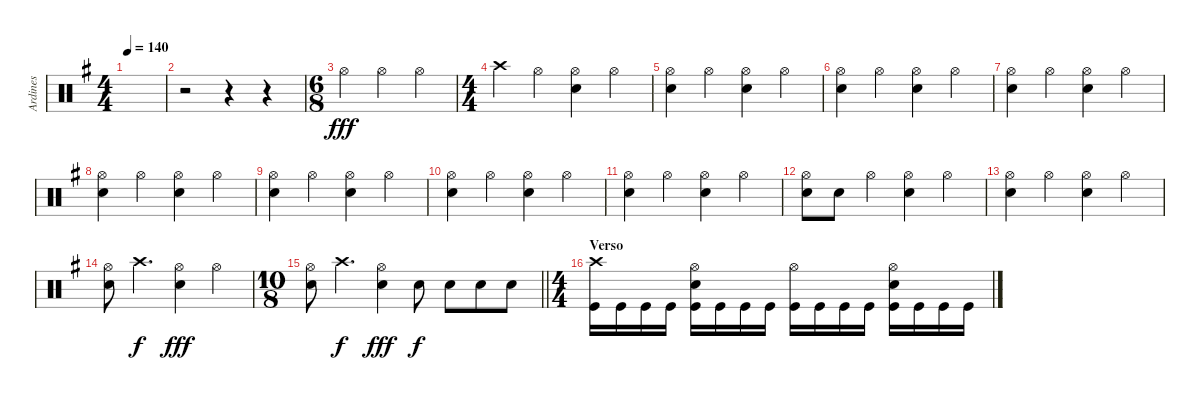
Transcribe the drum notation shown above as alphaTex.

\track ("Ardines" "Ardines") {instrument percussion}
\staff {score}
\articulation defaults
\ts (4 4)
\tempo 140
\clef neutral
\ks g
|
r.2 r.4 r.4 |
\ts (6 8)
"Hi-Hat (open)".4{dy fff} "Hi-Hat (open)".4 "Hi-Hat (open)".4 |
\ts (4 4)
"Crash high (hit)".4 "Hi-Hat (open)".4 ("Hi-Hat (open)" "Electric Snare (hit)").4 "Hi-Hat (open)".4 |
("Hi-Hat (open)" "Electric Snare (hit)").4 "Hi-Hat (open)".4 ("Hi-Hat (open)" "Electric Snare (hit)").4 "Hi-Hat (open)".4 |
("Hi-Hat (open)" "Electric Snare (hit)").4 "Hi-Hat (open)".4 ("Hi-Hat (open)" "Electric Snare (hit)").4 "Hi-Hat (open)".4 |
("Hi-Hat (open)" "Electric Snare (hit)").4 "Hi-Hat (open)".4 ("Hi-Hat (open)" "Electric Snare (hit)").4 "Hi-Hat (open)".4 |
("Hi-Hat (open)" "Electric Snare (hit)").4 "Hi-Hat (open)".4 ("Hi-Hat (open)" "Electric Snare (hit)").4 "Hi-Hat (open)".4 |
("Hi-Hat (open)" "Electric Snare (hit)").4 "Hi-Hat (open)".4 ("Hi-Hat (open)" "Electric Snare (hit)").4 "Hi-Hat (open)".4 |
("Hi-Hat (open)" "Electric Snare (hit)").4 "Hi-Hat (open)".4 ("Hi-Hat (open)" "Electric Snare (hit)").4 "Hi-Hat (open)".4 |
("Hi-Hat (open)" "Electric Snare (hit)").4 "Hi-Hat (open)".4 ("Hi-Hat (open)" "Electric Snare (hit)").4 "Hi-Hat (open)".4 |
("Hi-Hat (open)" "Electric Snare (hit)").8 "Electric Snare (hit)".8 "Hi-Hat (open)".4 ("Hi-Hat (open)" "Electric Snare (hit)").4 "Hi-Hat (open)".4 |
("Hi-Hat (open)" "Electric Snare (hit)").4 "Hi-Hat (open)".4 ("Hi-Hat (open)" "Electric Snare (hit)").4 "Hi-Hat (open)".4 |
("Hi-Hat (open)" "Electric Snare (hit)").8 "Crash high (hit)".4{d dy f} ("Hi-Hat (open)" "Electric Snare (hit)").4{dy fff} "Hi-Hat (open)".4 |
\ts (10 8)
\barLineRight lightlight
("Hi-Hat (open)" "Electric Snare (hit)").8 "Crash high (hit)".4{d dy f} ("Hi-Hat (open)" "Electric Snare (hit)").4{dy fff} "Electric Snare (hit)".8{dy f} "Electric Snare (hit)".8 "Electric Snare (hit)".8 "Electric Snare (hit)".8 |
\ts (4 4)
\section ("" "Verso")
("Crash high (hit)" "Kick (hit)").16 "Kick (hit)".16 "Kick (hit)".16 "Kick (hit)".16 ("Hi-Hat (open)" "Electric Snare (hit)" "Kick (hit)").16 "Kick (hit)".16 "Kick (hit)".16 "Kick (hit)".16 ("Hi-Hat (open)" "Kick (hit)").16 "Kick (hit)".16 "Kick (hit)".16 "Kick (hit)".16 ("Hi-Hat (open)" "Electric Snare (hit)" "Kick (hit)").16 "Kick (hit)".16 "Kick (hit)".16 "Kick (hit)".16
